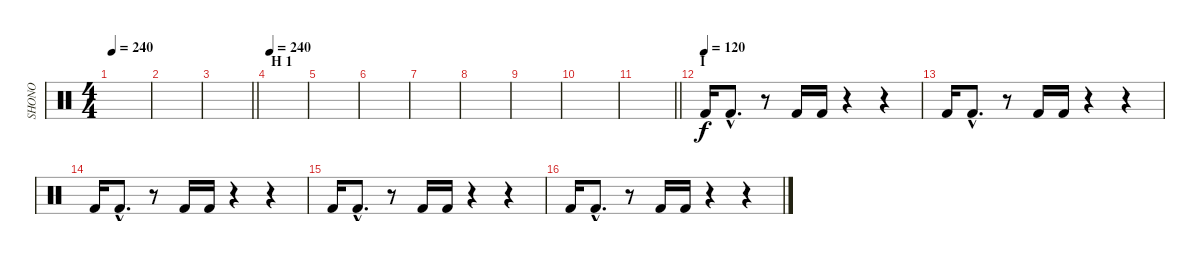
\track ("SHONO" "SHONO") {instrument percussion}
\staff {score}
\articulation defaults
\ts (4 4)
\tempo 240
\clef neutral
\ks c
|
|
\barLineRight lightlight
|
\section ("" "H 1")
\tempo 240
|
|
|
|
|
|
|
\barLineRight lightlight
|
\section ("" "I")
\tempo (120)
"Kick (hit) 2".16 "Kick (hit) 2"{hac}.8{d} r.8 "Kick (hit) 2".16 "Kick (hit) 2".16 r.4 r.4 |
"Kick (hit) 2".16 "Kick (hit) 2"{hac}.8{d} r.8 "Kick (hit) 2".16 "Kick (hit) 2".16 r.4 r.4 |
"Kick (hit) 2".16 "Kick (hit) 2"{hac}.8{d} r.8 "Kick (hit) 2".16 "Kick (hit) 2".16 r.4 r.4 |
"Kick (hit) 2".16 "Kick (hit) 2"{hac}.8{d} r.8 "Kick (hit) 2".16 "Kick (hit) 2".16 r.4 r.4 |
"Kick (hit) 2".16 "Kick (hit) 2"{hac}.8{d} r.8 "Kick (hit) 2".16 "Kick (hit) 2".16 r.4 r.4
